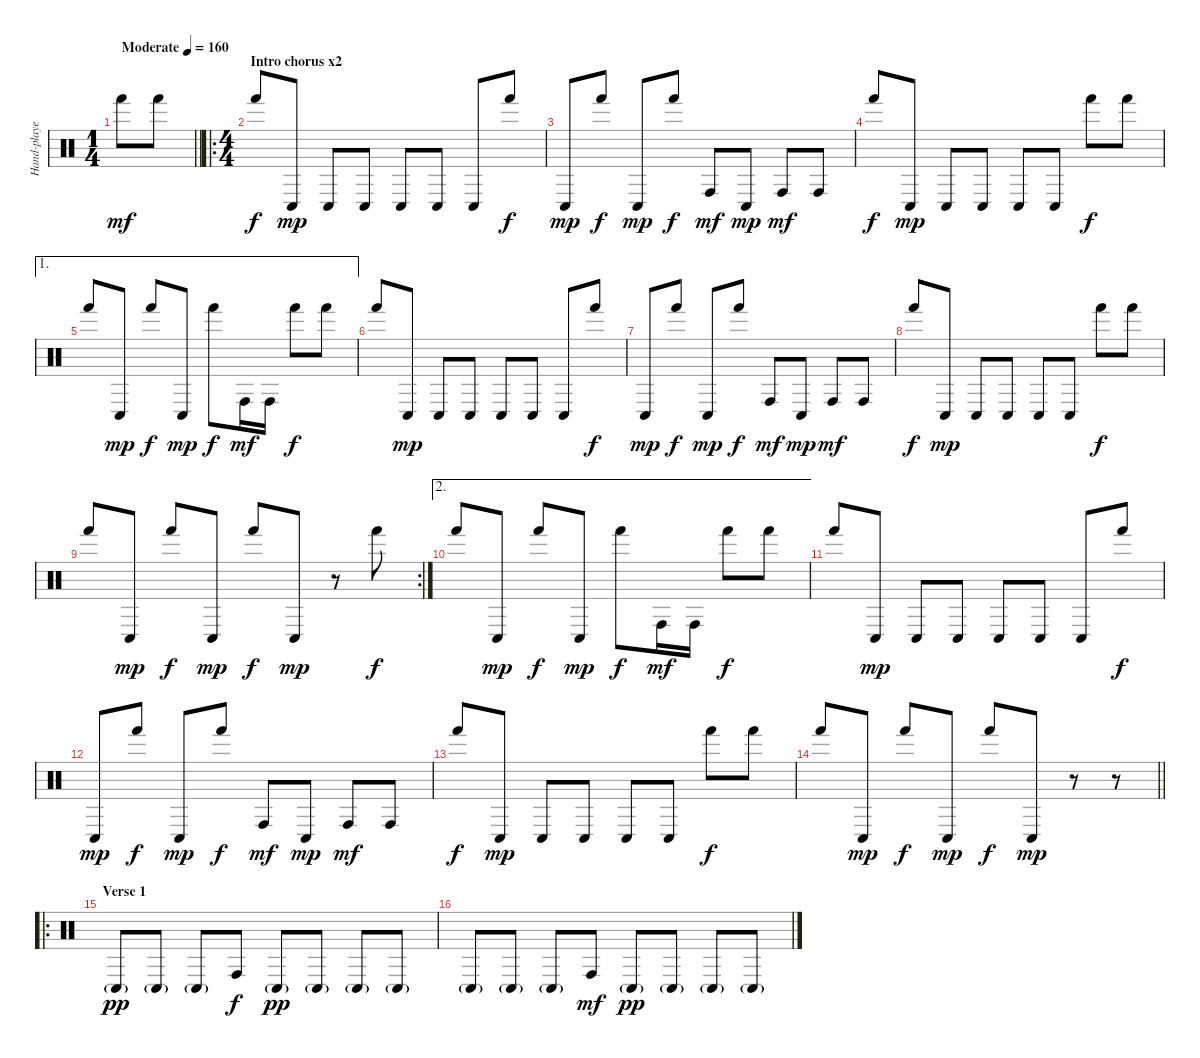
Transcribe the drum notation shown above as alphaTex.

\track ("Hand-played drums" "Hand-playe") {instrument percussion}
\staff {score}
\articulation defaults
\ts (1 4)
\tempo (160 "Moderate")
\clef neutral
\barLineRight lightlight
\ks c "Hand (hit)".8{dy mf} "Hand (hit)".8
|
\ro
\ts (4 4)
\section ("" "Intro chorus x2")
"Hand (hit)".8{dy f} "Conga low (hit)".8{dy mp} "Conga low (hit)".8 "Conga low (hit)".8 "Conga low (hit)".8 "Conga low (hit)".8 "Conga low (hit)".8 "Hand (hit)".8{dy f} |
"Conga low (hit)".8{dy mp} "Hand (hit)".8{dy f} "Conga low (hit)".8{dy mp} "Hand (hit)".8{dy f} "Conga high (hit)".8{dy mf} "Conga low (hit)".8{dy mp} "Conga high (hit)".8{dy mf} "Conga high (hit)".8 |
"Hand (hit)".8{dy f} "Conga low (hit)".8{dy mp} "Conga low (hit)".8 "Conga low (hit)".8 "Conga low (hit)".8 "Conga low (hit)".8 "Hand (hit)".8{dy f} "Hand (hit)".8 |
\ae 1 "Hand (hit)".8 "Conga low (hit)".8{dy mp} "Hand (hit)".8{dy f} "Conga low (hit)".8{dy mp} "Hand (hit)".8{dy f} "Conga high (hit)".16{dy mf} "Conga high (hit)".16 "Hand (hit)".8{dy f} "Hand (hit)".8
|
"Hand (hit)".8 "Conga low (hit)".8{dy mp} "Conga low (hit)".8 "Conga low (hit)".8 "Conga low (hit)".8 "Conga low (hit)".8 "Conga low (hit)".8 "Hand (hit)".8{dy f} |
"Conga low (hit)".8{dy mp} "Hand (hit)".8{dy f} "Conga low (hit)".8{dy mp} "Hand (hit)".8{dy f} "Conga high (hit)".8{dy mf} "Conga low (hit)".8{dy mp} "Conga high (hit)".8{dy mf} "Conga high (hit)".8 |
"Hand (hit)".8{dy f} "Conga low (hit)".8{dy mp} "Conga low (hit)".8 "Conga low (hit)".8 "Conga low (hit)".8 "Conga low (hit)".8 "Hand (hit)".8{dy f} "Hand (hit)".8 |
\rc 2 "Hand (hit)".8 "Conga low (hit)".8{dy mp} "Hand (hit)".8{dy f} "Conga low (hit)".8{dy mp} "Hand (hit)".8{dy f} "Conga low (hit)".8{dy mp}
r.8 "Hand (hit)".8{dy f} |
\ae 2 "Hand (hit)".8 "Conga low (hit)".8{dy mp} "Hand (hit)".8{dy f} "Conga low (hit)".8{dy mp} "Hand (hit)".8{dy f} "Conga high (hit)".16{dy mf} "Conga high (hit)".16 "Hand (hit)".8{dy f} "Hand (hit)".8
|
"Hand (hit)".8 "Conga low (hit)".8{dy mp} "Conga low (hit)".8 "Conga low (hit)".8 "Conga low (hit)".8 "Conga low (hit)".8 "Conga low (hit)".8 "Hand (hit)".8{dy f} |
"Conga low (hit)".8{dy mp} "Hand (hit)".8{dy f} "Conga low (hit)".8{dy mp} "Hand (hit)".8{dy f} "Conga high (hit)".8{dy mf} "Conga low (hit)".8{dy mp} "Conga high (hit)".8{dy mf} "Conga high (hit)".8 |
"Hand (hit)".8{dy f} "Conga low (hit)".8{dy mp} "Conga low (hit)".8 "Conga low (hit)".8 "Conga low (hit)".8 "Conga low (hit)".8 "Hand (hit)".8{dy f} "Hand (hit)".8 |
\barLineRight lightlight "Hand (hit)".8 "Conga low (hit)".8{dy mp} "Hand (hit)".8{dy f} "Conga low (hit)".8{dy mp} "Hand (hit)".8{dy f} "Conga low (hit)".8{dy mp}
r.8 r.8 |
\ro
\section ("" "Verse 1")
"Conga low (hit)"{g}.8{dy pp} "Conga low (hit)"{g}.8 "Conga low (hit)"{g}.8 "Conga high (hit)".8{dy f} "Conga low (hit)"{g}.8{dy pp} "Conga low (hit)"{g}.8 "Conga low (hit)"{g}.8 "Conga low (hit)"{g}.8 |
"Conga low (hit)"{g}.8 "Conga low (hit)"{g}.8 "Conga low (hit)"{g}.8 "Conga high (hit)".8{dy mf} "Conga low (hit)"{g}.8{dy pp} "Conga low (hit)"{g}.8 "Conga low (hit)"{g}.8 "Conga low (hit)"{g}.8
